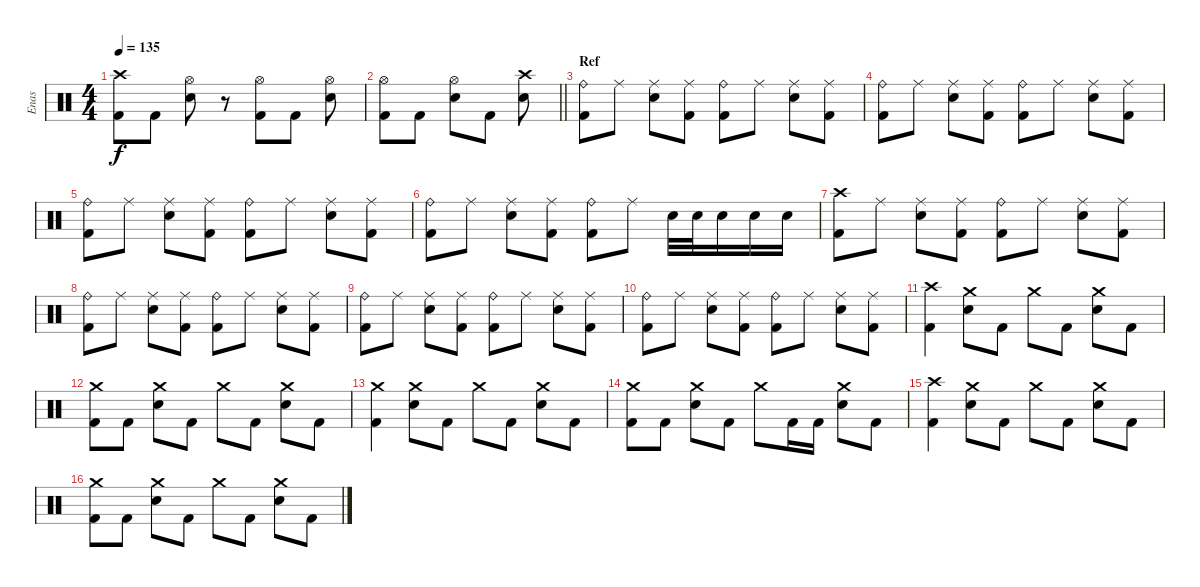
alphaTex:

\track ("Enas" "Enas") {instrument percussion}
\staff {score}
\articulation defaults
\ts (4 4)
\tempo 135
\clef neutral
\ks c
("Kick (hit) 2" "Crash high (hit)").8{dy f} "Kick (hit) 2".8 ("Snare (hit) 2" "Hi-Hat (open)").8 r.8 ("Kick (hit) 2" "Hi-Hat (open)").8 "Kick (hit) 2".8 ("Snare (hit) 2" "Hi-Hat (open)").8 |
\barLineRight lightlight
("Kick (hit) 2" "Hi-Hat (open)").8 "Kick (hit) 2".8 ("Snare (hit) 2" "Hi-Hat (open)").8 "Kick (hit) 2".8 ("Snare (hit) 2" "Crash high (hit)").8 |
\section ("" "Ref")
("Ride (bell)" "Kick (hit) 2").8 "Ride (middle)".8 ("Ride (middle)" "Snare (hit) 2").8 ("Ride (middle)" "Kick (hit) 2").8 ("Ride (bell)" "Kick (hit) 2").8 "Ride (middle)".8 ("Ride (middle)" "Snare (hit) 2").8 ("Ride (middle)" "Kick (hit) 2").8 |
("Ride (bell)" "Kick (hit) 2").8 "Ride (middle)".8 ("Ride (middle)" "Snare (hit) 2").8 ("Ride (middle)" "Kick (hit) 2").8 ("Ride (bell)" "Kick (hit) 2").8 "Ride (middle)".8 ("Ride (middle)" "Snare (hit) 2").8 ("Ride (middle)" "Kick (hit) 2").8 |
("Ride (bell)" "Kick (hit) 2").8 "Ride (middle)".8 ("Ride (middle)" "Snare (hit) 2").8 ("Ride (middle)" "Kick (hit) 2").8 ("Ride (bell)" "Kick (hit) 2").8 "Ride (middle)".8 ("Ride (middle)" "Snare (hit) 2").8 ("Ride (middle)" "Kick (hit) 2").8 |
("Ride (bell)" "Kick (hit) 2").8 "Ride (middle)".8 ("Ride (middle)" "Snare (hit) 2").8 ("Ride (middle)" "Kick (hit) 2").8 ("Ride (bell)" "Kick (hit) 2").8 "Ride (middle)".8 "Snare (hit) 2".32 "Snare (hit) 2".32 "Snare (hit) 2".16 "Snare (hit) 2".16 "Snare (hit) 2".16 |
("Crash high (hit)" "Kick (hit) 2").8 "Ride (middle)".8 ("Ride (middle)" "Snare (hit) 2").8 ("Ride (middle)" "Kick (hit) 2").8 ("Ride (bell)" "Kick (hit) 2").8 "Ride (middle)".8 ("Ride (middle)" "Snare (hit) 2").8 ("Ride (middle)" "Kick (hit) 2").8 |
("Ride (bell)" "Kick (hit) 2").8 "Ride (middle)".8 ("Ride (middle)" "Snare (hit) 2").8 ("Ride (middle)" "Kick (hit) 2").8 ("Ride (bell)" "Kick (hit) 2").8 "Ride (middle)".8 ("Ride (middle)" "Snare (hit) 2").8 ("Ride (middle)" "Kick (hit) 2").8 |
("Ride (bell)" "Kick (hit) 2").8 "Ride (middle)".8 ("Ride (middle)" "Snare (hit) 2").8 ("Ride (middle)" "Kick (hit) 2").8 ("Ride (bell)" "Kick (hit) 2").8 "Ride (middle)".8 ("Ride (middle)" "Snare (hit) 2").8 ("Ride (middle)" "Kick (hit) 2").8 |
("Ride (bell)" "Kick (hit) 2").8 "Ride (middle)".8 ("Ride (middle)" "Snare (hit) 2").8 ("Ride (middle)" "Kick (hit) 2").8 ("Ride (bell)" "Kick (hit) 2").8 "Ride (middle)".8 ("Ride (middle)" "Snare (hit) 2").8 ("Ride (middle)" "Kick (hit) 2").8 |
("Kick (hit) 2" "Crash high (hit)").4 ("Snare (hit) 2" "Crash medium (hit)").8 "Kick (hit) 2".8 "Crash medium (hit)".8 "Kick (hit) 2".8 ("Snare (hit) 2" "Crash medium (hit)").8 "Kick (hit) 2".8 |
("Kick (hit) 2" "Crash medium (hit)").8 "Kick (hit) 2".8 ("Snare (hit) 2" "Crash medium (hit)").8 "Kick (hit) 2".8 "Crash medium (hit)".8 "Kick (hit) 2".8 ("Snare (hit) 2" "Crash medium (hit)").8 "Kick (hit) 2".8 |
("Kick (hit) 2" "Crash medium (hit)").4 ("Snare (hit) 2" "Crash medium (hit)").8 "Kick (hit) 2".8 "Crash medium (hit)".8 "Kick (hit) 2".8 ("Snare (hit) 2" "Crash medium (hit)").8 "Kick (hit) 2".8 |
("Kick (hit) 2" "Crash medium (hit)").8 "Kick (hit) 2".8 ("Snare (hit) 2" "Crash medium (hit)").8 "Kick (hit) 2".8 "Crash medium (hit)".8 "Kick (hit) 2".16 "Kick (hit) 2".16 ("Snare (hit) 2" "Crash medium (hit)").8 "Kick (hit) 2".8 |
("Kick (hit) 2" "Crash high (hit)").4 ("Snare (hit) 2" "Crash medium (hit)").8 "Kick (hit) 2".8 "Crash medium (hit)".8 "Kick (hit) 2".8 ("Snare (hit) 2" "Crash medium (hit)").8 "Kick (hit) 2".8 |
("Kick (hit) 2" "Crash medium (hit)").8 "Kick (hit) 2".8 ("Snare (hit) 2" "Crash medium (hit)").8 "Kick (hit) 2".8 "Crash medium (hit)".8 "Kick (hit) 2".8 ("Snare (hit) 2" "Crash medium (hit)").8 "Kick (hit) 2".8
